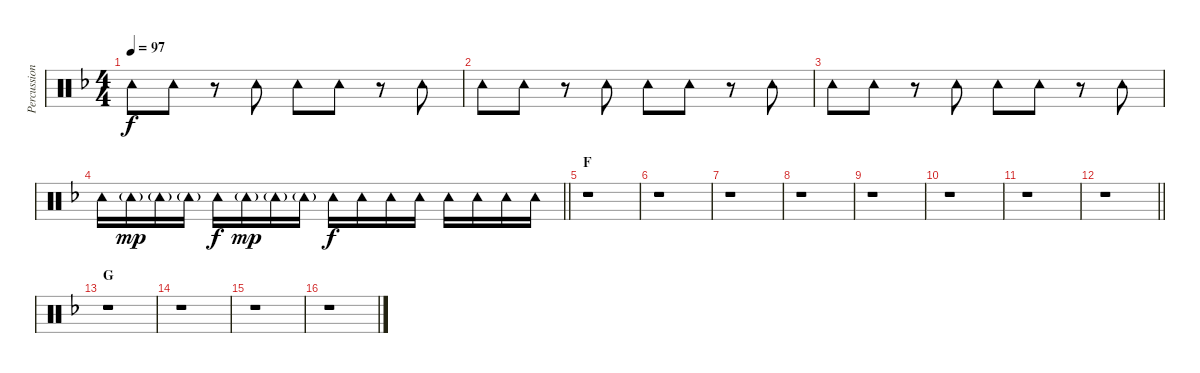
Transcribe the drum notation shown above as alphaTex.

\track ("Percussion" "Percussion") {instrument percussion}
\staff {score}
\articulation defaults
\ts (4 4)
\tempo 97
\clef neutral
\ks f "Tambourine (hit)".8{dy f} "Tambourine (hit)".8
r.8 "Tambourine (hit)".8 "Tambourine (hit)".8 "Tambourine (hit)".8 r.8 "Tambourine (hit)".8 |
"Tambourine (hit)".8 "Tambourine (hit)".8 r.8 "Tambourine (hit)".8 "Tambourine (hit)".8 "Tambourine (hit)".8 r.8 "Tambourine (hit)".8 |
"Tambourine (hit)".8 "Tambourine (hit)".8 r.8 "Tambourine (hit)".8 "Tambourine (hit)".8 "Tambourine (hit)".8 r.8 "Tambourine (hit)".8 |
\barLineRight lightlight "Tambourine (hit)".16 "Tambourine (hit)"{g}.16{dy mp} "Tambourine (hit)"{g}.16 "Tambourine (hit)"{g}.16 "Tambourine (hit)".16{dy f} "Tambourine (hit)"{g}.16{dy mp} "Tambourine (hit)"{g}.16 "Tambourine (hit)"{g}.16 "Tambourine (hit)".16{dy f} "Tambourine (hit)".16 "Tambourine (hit)".16 "Tambourine (hit)".16 "Tambourine (hit)".16 "Tambourine (hit)".16 "Tambourine (hit)".16 "Tambourine (hit)".16
|
\section ("" "F")
r.1 |
r.1 |
r.1 |
r.1 |
r.1 |
r.1 |
r.1 |
\barLineRight lightlight
r.1 |
\section ("" "G")
r.1 |
r.1 |
r.1 |
r.1
